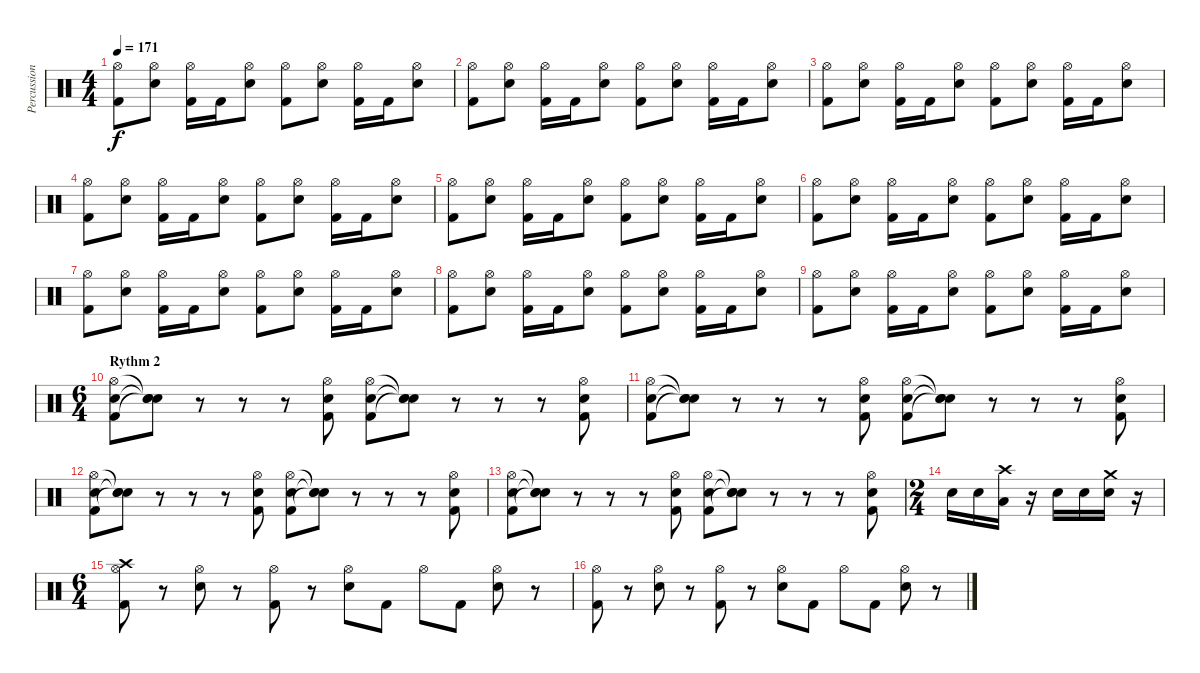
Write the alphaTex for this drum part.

\track ("Percussions" "Percussion") {instrument percussion}
\staff {score}
\articulation defaults
\ts (4 4)
\tempo 171
\clef neutral
\ks c
("Hi-Hat (open)" "Kick (hit) 2").8{dy f} ("Hi-Hat (open)" "Electric Snare (hit)").8 ("Hi-Hat (open)" "Kick (hit) 2").16 "Kick (hit) 2".16 ("Hi-Hat (open)" "Electric Snare (hit)").8 ("Hi-Hat (open)" "Kick (hit) 2").8 ("Hi-Hat (open)" "Electric Snare (hit)").8 ("Hi-Hat (open)" "Kick (hit) 2").16 "Kick (hit) 2".16 ("Hi-Hat (open)" "Electric Snare (hit)").8 |
("Hi-Hat (open)" "Kick (hit) 2").8 ("Hi-Hat (open)" "Electric Snare (hit)").8 ("Hi-Hat (open)" "Kick (hit) 2").16 "Kick (hit) 2".16 ("Hi-Hat (open)" "Electric Snare (hit)").8 ("Hi-Hat (open)" "Kick (hit) 2").8 ("Hi-Hat (open)" "Electric Snare (hit)").8 ("Hi-Hat (open)" "Kick (hit) 2").16 "Kick (hit) 2".16 ("Hi-Hat (open)" "Electric Snare (hit)").8 |
("Hi-Hat (open)" "Kick (hit) 2").8 ("Hi-Hat (open)" "Electric Snare (hit)").8 ("Hi-Hat (open)" "Kick (hit) 2").16 "Kick (hit) 2".16 ("Hi-Hat (open)" "Electric Snare (hit)").8 ("Hi-Hat (open)" "Kick (hit) 2").8 ("Hi-Hat (open)" "Electric Snare (hit)").8 ("Hi-Hat (open)" "Kick (hit) 2").16 "Kick (hit) 2".16 ("Hi-Hat (open)" "Electric Snare (hit)").8 |
("Hi-Hat (open)" "Kick (hit) 2").8 ("Hi-Hat (open)" "Electric Snare (hit)").8 ("Hi-Hat (open)" "Kick (hit) 2").16 "Kick (hit) 2".16 ("Hi-Hat (open)" "Electric Snare (hit)").8 ("Hi-Hat (open)" "Kick (hit) 2").8 ("Hi-Hat (open)" "Electric Snare (hit)").8 ("Hi-Hat (open)" "Kick (hit) 2").16 "Kick (hit) 2".16 ("Hi-Hat (open)" "Electric Snare (hit)").8 |
("Hi-Hat (open)" "Kick (hit) 2").8 ("Hi-Hat (open)" "Electric Snare (hit)").8 ("Hi-Hat (open)" "Kick (hit) 2").16 "Kick (hit) 2".16 ("Hi-Hat (open)" "Electric Snare (hit)").8 ("Hi-Hat (open)" "Kick (hit) 2").8 ("Hi-Hat (open)" "Electric Snare (hit)").8 ("Hi-Hat (open)" "Kick (hit) 2").16 "Kick (hit) 2".16 ("Hi-Hat (open)" "Electric Snare (hit)").8 |
("Hi-Hat (open)" "Kick (hit) 2").8 ("Hi-Hat (open)" "Electric Snare (hit)").8 ("Hi-Hat (open)" "Kick (hit) 2").16 "Kick (hit) 2".16 ("Hi-Hat (open)" "Electric Snare (hit)").8 ("Hi-Hat (open)" "Kick (hit) 2").8 ("Hi-Hat (open)" "Electric Snare (hit)").8 ("Hi-Hat (open)" "Kick (hit) 2").16 "Kick (hit) 2".16 ("Hi-Hat (open)" "Electric Snare (hit)").8 |
("Hi-Hat (open)" "Kick (hit) 2").8 ("Hi-Hat (open)" "Electric Snare (hit)").8 ("Hi-Hat (open)" "Kick (hit) 2").16 "Kick (hit) 2".16 ("Hi-Hat (open)" "Electric Snare (hit)").8 ("Hi-Hat (open)" "Kick (hit) 2").8 ("Hi-Hat (open)" "Electric Snare (hit)").8 ("Hi-Hat (open)" "Kick (hit) 2").16 "Kick (hit) 2".16 ("Hi-Hat (open)" "Electric Snare (hit)").8 |
("Hi-Hat (open)" "Kick (hit) 2").8 ("Hi-Hat (open)" "Electric Snare (hit)").8 ("Hi-Hat (open)" "Kick (hit) 2").16 "Kick (hit) 2".16 ("Hi-Hat (open)" "Electric Snare (hit)").8 ("Hi-Hat (open)" "Kick (hit) 2").8 ("Hi-Hat (open)" "Electric Snare (hit)").8 ("Hi-Hat (open)" "Kick (hit) 2").16 "Kick (hit) 2".16 ("Hi-Hat (open)" "Electric Snare (hit)").8 |
("Hi-Hat (open)" "Kick (hit) 2").8 ("Hi-Hat (open)" "Electric Snare (hit)").8 ("Hi-Hat (open)" "Kick (hit) 2").16 "Kick (hit) 2".16 ("Hi-Hat (open)" "Electric Snare (hit)").8 ("Hi-Hat (open)" "Kick (hit) 2").8 ("Hi-Hat (open)" "Electric Snare (hit)").8 ("Hi-Hat (open)" "Kick (hit) 2").16 "Kick (hit) 2".16 ("Hi-Hat (open)" "Electric Snare (hit)").8 |
\ts (6 4)
\section ("" "Rythm 2")
("Hi-Hat (open)" "Electric Snare (hit)" "Kick (hit) 2").8 ("Snare (hit)"{t} "Snare (hit)"{t} "Snare (hit)"{t}).8 r.8 r.8 r.8 ("Hi-Hat (open)" "Electric Snare (hit)" "Kick (hit) 2").8 ("Hi-Hat (open)" "Electric Snare (hit)" "Kick (hit) 2").8 ("Snare (hit)"{t} "Snare (hit)"{t} "Snare (hit)"{t}).8 r.8 r.8 r.8 ("Hi-Hat (open)" "Electric Snare (hit)" "Kick (hit) 2").8 |
("Hi-Hat (open)" "Electric Snare (hit)" "Kick (hit) 2").8 ("Snare (hit)"{t} "Snare (hit)"{t} "Snare (hit)"{t}).8 r.8 r.8 r.8 ("Hi-Hat (open)" "Electric Snare (hit)" "Kick (hit) 2").8 ("Hi-Hat (open)" "Electric Snare (hit)" "Kick (hit) 2").8 ("Snare (hit)"{t} "Snare (hit)"{t} "Snare (hit)"{t}).8 r.8 r.8 r.8 ("Hi-Hat (open)" "Electric Snare (hit)" "Kick (hit) 2").8 |
("Hi-Hat (open)" "Electric Snare (hit)" "Kick (hit) 2").8 ("Snare (hit)"{t} "Snare (hit)"{t} "Snare (hit)"{t}).8 r.8 r.8 r.8 ("Hi-Hat (open)" "Electric Snare (hit)" "Kick (hit) 2").8 ("Hi-Hat (open)" "Electric Snare (hit)" "Kick (hit) 2").8 ("Snare (hit)"{t} "Snare (hit)"{t} "Snare (hit)"{t}).8 r.8 r.8 r.8 ("Hi-Hat (open)" "Electric Snare (hit)" "Kick (hit) 2").8 |
("Hi-Hat (open)" "Electric Snare (hit)" "Kick (hit) 2").8 ("Snare (hit)"{t} "Snare (hit)"{t} "Snare (hit)"{t}).8 r.8 r.8 r.8 ("Hi-Hat (open)" "Electric Snare (hit)" "Kick (hit) 2").8 ("Hi-Hat (open)" "Electric Snare (hit)" "Kick (hit) 2").8 ("Snare (hit)"{t} "Snare (hit)"{t} "Snare (hit)"{t}).8 r.8 r.8 r.8 ("Hi-Hat (open)" "Electric Snare (hit)" "Kick (hit) 2").8 |
\ts (2 4)
"Electric Snare (hit)".16 "Electric Snare (hit)".16 ("Crash high (hit)" "Low Floor Tom (hit)").16 r.16 "Electric Snare (hit)".16 "Electric Snare (hit)".16 ("Crash medium (hit)" "Electric Snare (hit)").16 r.16 |
\ts (6 4)
("Crash high (hit)" "Hi-Hat (open)" "Kick (hit) 2").8 r.8 ("Hi-Hat (open)" "Electric Snare (hit)").8 r.8 ("Hi-Hat (open)" "Kick (hit) 2").8 r.8 ("Hi-Hat (open)" "Electric Snare (hit)").8 "Kick (hit) 2".8 "Hi-Hat (open)".8 "Kick (hit) 2".8 ("Hi-Hat (open)" "Electric Snare (hit)").8 r.8 |
("Hi-Hat (open)" "Kick (hit) 2").8 r.8 ("Hi-Hat (open)" "Electric Snare (hit)").8 r.8 ("Hi-Hat (open)" "Kick (hit) 2").8 r.8 ("Hi-Hat (open)" "Electric Snare (hit)").8 "Kick (hit) 2".8 "Hi-Hat (open)".8 "Kick (hit) 2".8 ("Hi-Hat (open)" "Electric Snare (hit)").8 r.8
